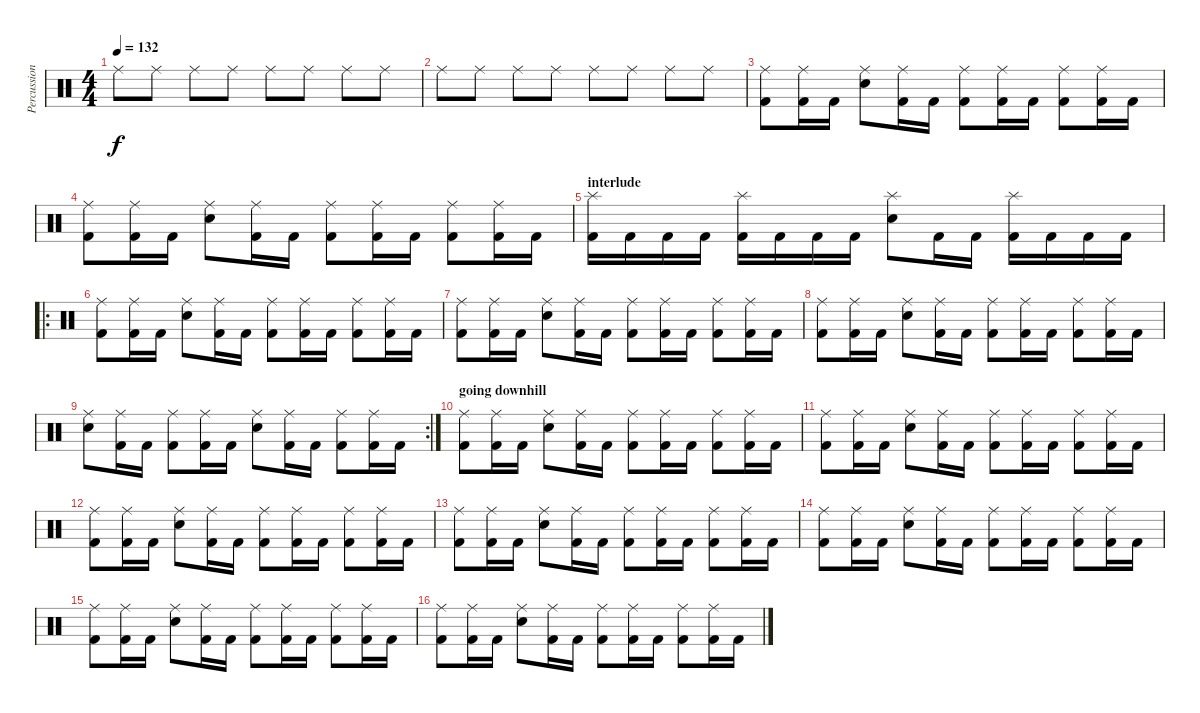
\track ("Percussion" "Percussion") {instrument percussion}
\staff {score}
\articulation defaults
\ts (4 4)
\tempo 132
\clef neutral
\ks c "Ride (middle)".8{dy f} "Ride (middle)".8 "Ride (middle)".8 "Ride (middle)".8 "Ride (middle)".8 "Ride (middle)".8 "Ride (middle)".8 "Ride (middle)".8
|
"Ride (middle)".8 "Ride (middle)".8 "Ride (middle)".8 "Ride (middle)".8 "Ride (middle)".8 "Ride (middle)".8 "Ride (middle)".8 "Ride (middle)".8 |
("Ride (middle)" "Kick (hit) 2").8 ("Ride (middle)" "Kick (hit) 2").16 "Kick (hit) 2".16 ("Ride (middle)" "Snare (hit) 2").8 ("Ride (middle)" "Kick (hit) 2").16 "Kick (hit) 2".16 ("Ride (middle)" "Kick (hit) 2").8 ("Ride (middle)" "Kick (hit) 2").16 "Kick (hit) 2".16 ("Ride (middle)" "Kick (hit) 2").8 ("Ride (middle)" "Kick (hit) 2").16 "Kick (hit) 2".16 |
("Ride (middle)" "Kick (hit) 2").8 ("Ride (middle)" "Kick (hit) 2").16 "Kick (hit) 2".16 ("Ride (middle)" "Snare (hit) 2").8 ("Ride (middle)" "Kick (hit) 2").16 "Kick (hit) 2".16 ("Ride (middle)" "Kick (hit) 2").8 ("Ride (middle)" "Kick (hit) 2").16 "Kick (hit) 2".16 ("Ride (middle)" "Kick (hit) 2").8 ("Ride (middle)" "Kick (hit) 2").16 "Kick (hit) 2".16 |
\section ("" "interlude")
("Splash (hit)" "Kick (hit) 2").16 "Kick (hit) 2".16 "Kick (hit) 2".16 "Kick (hit) 2".16 ("Splash (hit)" "Kick (hit) 2").16 "Kick (hit) 2".16 "Kick (hit) 2".16 "Kick (hit) 2".16 ("Splash (hit)" "Snare (hit) 2").8 "Kick (hit) 2".16 "Kick (hit) 2".16 ("Splash (hit)" "Kick (hit) 2").16 "Kick (hit) 2".16 "Kick (hit) 2".16 "Kick (hit) 2".16 |
\ro
("Ride (middle)" "Kick (hit) 2").8 ("Ride (middle)" "Kick (hit) 2").16 "Kick (hit) 2".16 ("Ride (middle)" "Snare (hit) 2").8 ("Ride (middle)" "Kick (hit) 2").16 "Kick (hit) 2".16 ("Ride (middle)" "Kick (hit) 2").8 ("Ride (middle)" "Kick (hit) 2").16 "Kick (hit) 2".16 ("Ride (middle)" "Kick (hit) 2").8 ("Ride (middle)" "Kick (hit) 2").16 "Kick (hit) 2".16 |
("Ride (middle)" "Kick (hit) 2").8 ("Ride (middle)" "Kick (hit) 2").16 "Kick (hit) 2".16 ("Ride (middle)" "Snare (hit) 2").8 ("Ride (middle)" "Kick (hit) 2").16 "Kick (hit) 2".16 ("Ride (middle)" "Kick (hit) 2").8 ("Ride (middle)" "Kick (hit) 2").16 "Kick (hit) 2".16 ("Ride (middle)" "Kick (hit) 2").8 ("Ride (middle)" "Kick (hit) 2").16 "Kick (hit) 2".16 |
("Ride (middle)" "Kick (hit) 2").8 ("Ride (middle)" "Kick (hit) 2").16 "Kick (hit) 2".16 ("Ride (middle)" "Snare (hit) 2").8 ("Ride (middle)" "Kick (hit) 2").16 "Kick (hit) 2".16 ("Ride (middle)" "Kick (hit) 2").8 ("Ride (middle)" "Kick (hit) 2").16 "Kick (hit) 2".16 ("Ride (middle)" "Kick (hit) 2").8 ("Ride (middle)" "Kick (hit) 2").16 "Kick (hit) 2".16 |
\rc 2
("Ride (middle)" "Snare (hit) 2").8 ("Ride (middle)" "Kick (hit) 2").16 "Kick (hit) 2".16 ("Ride (middle)" "Kick (hit) 2").8 ("Ride (middle)" "Kick (hit) 2").16 "Kick (hit) 2".16 ("Ride (middle)" "Snare (hit) 2").8 ("Ride (middle)" "Kick (hit) 2").16 "Kick (hit) 2".16 ("Ride (middle)" "Kick (hit) 2").8 ("Ride (middle)" "Kick (hit) 2").16 "Kick (hit) 2".16 |
\section ("" "going downhill")
("Ride (middle)" "Kick (hit) 2").8 ("Ride (middle)" "Kick (hit) 2").16 "Kick (hit) 2".16 ("Ride (middle)" "Snare (hit) 2").8 ("Ride (middle)" "Kick (hit) 2").16 "Kick (hit) 2".16 ("Ride (middle)" "Kick (hit) 2").8 ("Ride (middle)" "Kick (hit) 2").16 "Kick (hit) 2".16 ("Ride (middle)" "Kick (hit) 2").8 ("Ride (middle)" "Kick (hit) 2").16 "Kick (hit) 2".16 |
("Ride (middle)" "Kick (hit) 2").8 ("Ride (middle)" "Kick (hit) 2").16 "Kick (hit) 2".16 ("Ride (middle)" "Snare (hit) 2").8 ("Ride (middle)" "Kick (hit) 2").16 "Kick (hit) 2".16 ("Ride (middle)" "Kick (hit) 2").8 ("Ride (middle)" "Kick (hit) 2").16 "Kick (hit) 2".16 ("Ride (middle)" "Kick (hit) 2").8 ("Ride (middle)" "Kick (hit) 2").16 "Kick (hit) 2".16 |
("Ride (middle)" "Kick (hit) 2").8 ("Ride (middle)" "Kick (hit) 2").16 "Kick (hit) 2".16 ("Ride (middle)" "Snare (hit) 2").8 ("Ride (middle)" "Kick (hit) 2").16 "Kick (hit) 2".16 ("Ride (middle)" "Kick (hit) 2").8 ("Ride (middle)" "Kick (hit) 2").16 "Kick (hit) 2".16 ("Ride (middle)" "Kick (hit) 2").8 ("Ride (middle)" "Kick (hit) 2").16 "Kick (hit) 2".16 |
("Ride (middle)" "Kick (hit) 2").8 ("Ride (middle)" "Kick (hit) 2").16 "Kick (hit) 2".16 ("Ride (middle)" "Snare (hit) 2").8 ("Ride (middle)" "Kick (hit) 2").16 "Kick (hit) 2".16 ("Ride (middle)" "Kick (hit) 2").8 ("Ride (middle)" "Kick (hit) 2").16 "Kick (hit) 2".16 ("Ride (middle)" "Kick (hit) 2").8 ("Ride (middle)" "Kick (hit) 2").16 "Kick (hit) 2".16 |
("Ride (middle)" "Kick (hit) 2").8 ("Ride (middle)" "Kick (hit) 2").16 "Kick (hit) 2".16 ("Ride (middle)" "Snare (hit) 2").8 ("Ride (middle)" "Kick (hit) 2").16 "Kick (hit) 2".16 ("Ride (middle)" "Kick (hit) 2").8 ("Ride (middle)" "Kick (hit) 2").16 "Kick (hit) 2".16 ("Ride (middle)" "Kick (hit) 2").8 ("Ride (middle)" "Kick (hit) 2").16 "Kick (hit) 2".16 |
("Ride (middle)" "Kick (hit) 2").8 ("Ride (middle)" "Kick (hit) 2").16 "Kick (hit) 2".16 ("Ride (middle)" "Snare (hit) 2").8 ("Ride (middle)" "Kick (hit) 2").16 "Kick (hit) 2".16 ("Ride (middle)" "Kick (hit) 2").8 ("Ride (middle)" "Kick (hit) 2").16 "Kick (hit) 2".16 ("Ride (middle)" "Kick (hit) 2").8 ("Ride (middle)" "Kick (hit) 2").16 "Kick (hit) 2".16 |
("Ride (middle)" "Kick (hit) 2").8 ("Ride (middle)" "Kick (hit) 2").16 "Kick (hit) 2".16 ("Ride (middle)" "Snare (hit) 2").8 ("Ride (middle)" "Kick (hit) 2").16 "Kick (hit) 2".16 ("Ride (middle)" "Kick (hit) 2").8 ("Ride (middle)" "Kick (hit) 2").16 "Kick (hit) 2".16 ("Ride (middle)" "Kick (hit) 2").8 ("Ride (middle)" "Kick (hit) 2").16 "Kick (hit) 2".16
